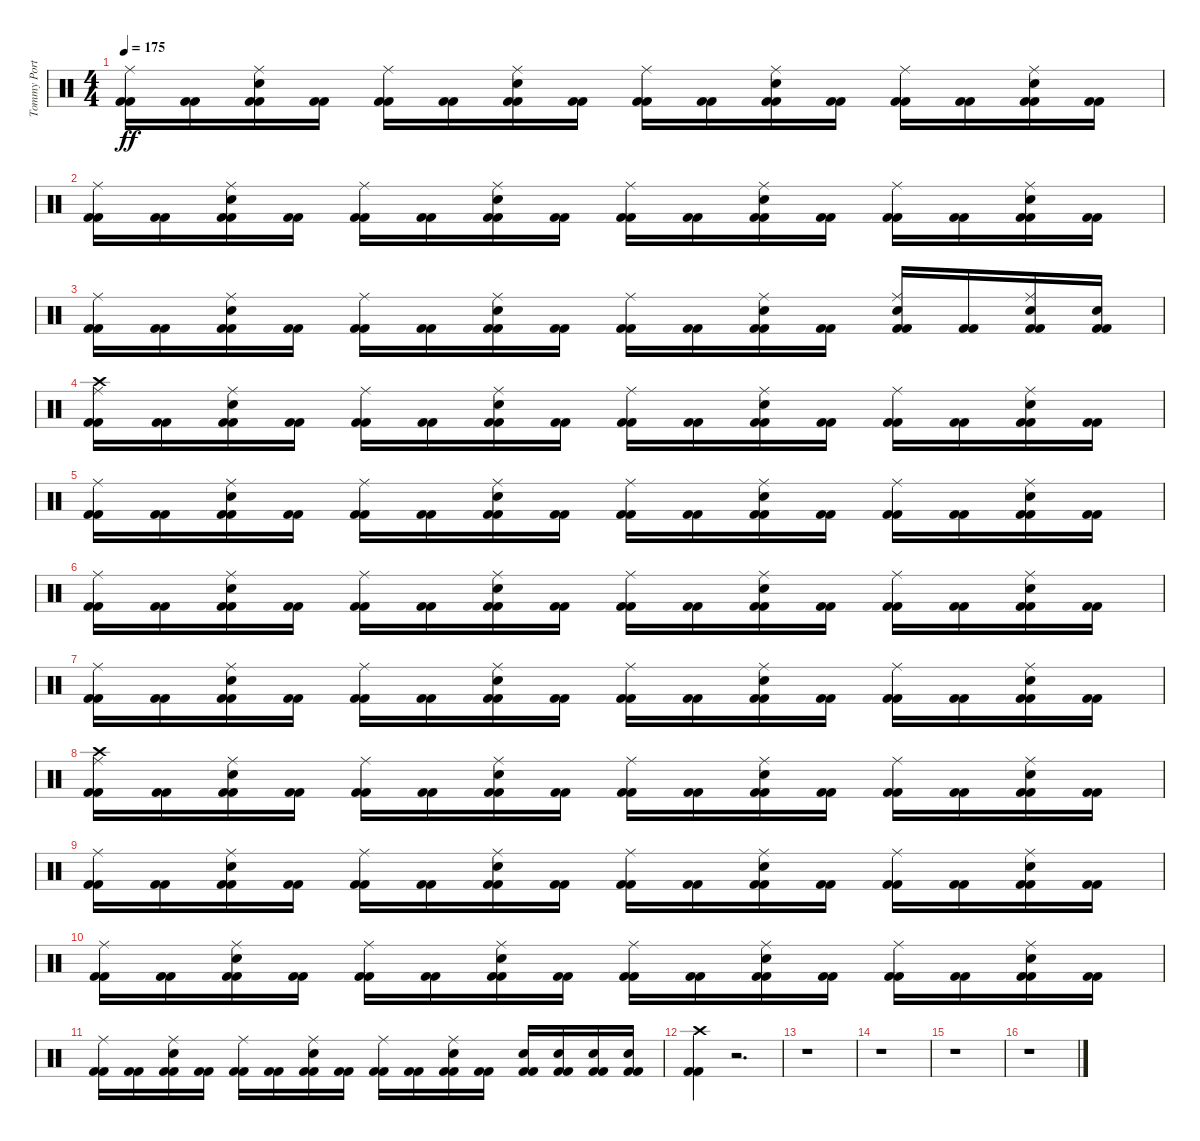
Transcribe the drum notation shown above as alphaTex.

\track ("Tommy Portimo" "Tommy Port") {instrument percussion}
\staff {score}
\articulation defaults
\ts (4 4)
\tempo 175
\clef neutral
\ks c
("Kick (hit) 2" "Kick (hit) 2" "Ride (middle)").16{dy ff} ("Kick (hit) 2" "Kick (hit) 2").16 ("Kick (hit) 2" "Kick (hit) 2" "Ride (middle)" "Electric Snare (hit)").16 ("Kick (hit) 2" "Kick (hit) 2").16 ("Kick (hit) 2" "Kick (hit) 2" "Ride (middle)").16 ("Kick (hit) 2" "Kick (hit) 2").16 ("Kick (hit) 2" "Kick (hit) 2" "Ride (middle)" "Electric Snare (hit)").16 ("Kick (hit) 2" "Kick (hit) 2").16 ("Kick (hit) 2" "Kick (hit) 2" "Ride (middle)").16 ("Kick (hit) 2" "Kick (hit) 2").16 ("Kick (hit) 2" "Kick (hit) 2" "Ride (middle)" "Electric Snare (hit)").16 ("Kick (hit) 2" "Kick (hit) 2").16 ("Kick (hit) 2" "Kick (hit) 2" "Ride (middle)").16 ("Kick (hit) 2" "Kick (hit) 2").16 ("Kick (hit) 2" "Kick (hit) 2" "Ride (middle)" "Electric Snare (hit)").16 ("Kick (hit) 2" "Kick (hit) 2").16 |
("Kick (hit) 2" "Kick (hit) 2" "Ride (middle)").16 ("Kick (hit) 2" "Kick (hit) 2").16 ("Kick (hit) 2" "Kick (hit) 2" "Ride (middle)" "Electric Snare (hit)").16 ("Kick (hit) 2" "Kick (hit) 2").16 ("Kick (hit) 2" "Kick (hit) 2" "Ride (middle)").16 ("Kick (hit) 2" "Kick (hit) 2").16 ("Kick (hit) 2" "Kick (hit) 2" "Ride (middle)" "Electric Snare (hit)").16 ("Kick (hit) 2" "Kick (hit) 2").16 ("Kick (hit) 2" "Kick (hit) 2" "Ride (middle)").16 ("Kick (hit) 2" "Kick (hit) 2").16 ("Kick (hit) 2" "Kick (hit) 2" "Ride (middle)" "Electric Snare (hit)").16 ("Kick (hit) 2" "Kick (hit) 2").16 ("Kick (hit) 2" "Kick (hit) 2" "Ride (middle)").16 ("Kick (hit) 2" "Kick (hit) 2").16 ("Kick (hit) 2" "Kick (hit) 2" "Ride (middle)" "Electric Snare (hit)").16 ("Kick (hit) 2" "Kick (hit) 2").16 |
("Kick (hit) 2" "Kick (hit) 2" "Ride (middle)").16 ("Kick (hit) 2" "Kick (hit) 2").16 ("Kick (hit) 2" "Kick (hit) 2" "Ride (middle)" "Electric Snare (hit)").16 ("Kick (hit) 2" "Kick (hit) 2").16 ("Kick (hit) 2" "Kick (hit) 2" "Ride (middle)").16 ("Kick (hit) 2" "Kick (hit) 2").16 ("Kick (hit) 2" "Kick (hit) 2" "Ride (middle)" "Electric Snare (hit)").16 ("Kick (hit) 2" "Kick (hit) 2").16 ("Kick (hit) 2" "Kick (hit) 2" "Ride (middle)").16 ("Kick (hit) 2" "Kick (hit) 2").16 ("Kick (hit) 2" "Kick (hit) 2" "Ride (middle)" "Electric Snare (hit)").16 ("Kick (hit) 2" "Kick (hit) 2").16 ("Kick (hit) 2" "Kick (hit) 2" "Ride (middle)" "Electric Snare (hit)").16 ("Kick (hit) 2" "Kick (hit) 2").16 ("Kick (hit) 2" "Kick (hit) 2" "Ride (middle)" "Electric Snare (hit)").16 ("Kick (hit) 2" "Kick (hit) 2" "Electric Snare (hit)").16 |
("Kick (hit) 2" "Kick (hit) 2" "Ride (middle)" "Crash high (hit)").16 ("Kick (hit) 2" "Kick (hit) 2").16 ("Kick (hit) 2" "Kick (hit) 2" "Ride (middle)" "Electric Snare (hit)").16 ("Kick (hit) 2" "Kick (hit) 2").16 ("Kick (hit) 2" "Kick (hit) 2" "Ride (middle)").16 ("Kick (hit) 2" "Kick (hit) 2").16 ("Kick (hit) 2" "Kick (hit) 2" "Ride (middle)" "Electric Snare (hit)").16 ("Kick (hit) 2" "Kick (hit) 2").16 ("Kick (hit) 2" "Kick (hit) 2" "Ride (middle)").16 ("Kick (hit) 2" "Kick (hit) 2").16 ("Kick (hit) 2" "Kick (hit) 2" "Ride (middle)" "Electric Snare (hit)").16 ("Kick (hit) 2" "Kick (hit) 2").16 ("Kick (hit) 2" "Kick (hit) 2" "Ride (middle)").16 ("Kick (hit) 2" "Kick (hit) 2").16 ("Kick (hit) 2" "Kick (hit) 2" "Ride (middle)" "Electric Snare (hit)").16 ("Kick (hit) 2" "Kick (hit) 2").16 |
("Kick (hit) 2" "Kick (hit) 2" "Ride (middle)").16 ("Kick (hit) 2" "Kick (hit) 2").16 ("Kick (hit) 2" "Kick (hit) 2" "Ride (middle)" "Electric Snare (hit)").16 ("Kick (hit) 2" "Kick (hit) 2").16 ("Kick (hit) 2" "Kick (hit) 2" "Ride (middle)").16 ("Kick (hit) 2" "Kick (hit) 2").16 ("Kick (hit) 2" "Kick (hit) 2" "Ride (middle)" "Electric Snare (hit)").16 ("Kick (hit) 2" "Kick (hit) 2").16 ("Kick (hit) 2" "Kick (hit) 2" "Ride (middle)").16 ("Kick (hit) 2" "Kick (hit) 2").16 ("Kick (hit) 2" "Kick (hit) 2" "Ride (middle)" "Electric Snare (hit)").16 ("Kick (hit) 2" "Kick (hit) 2").16 ("Kick (hit) 2" "Kick (hit) 2" "Ride (middle)").16 ("Kick (hit) 2" "Kick (hit) 2").16 ("Kick (hit) 2" "Kick (hit) 2" "Ride (middle)" "Electric Snare (hit)").16 ("Kick (hit) 2" "Kick (hit) 2").16 |
("Kick (hit) 2" "Kick (hit) 2" "Ride (middle)").16 ("Kick (hit) 2" "Kick (hit) 2").16 ("Kick (hit) 2" "Kick (hit) 2" "Ride (middle)" "Electric Snare (hit)").16 ("Kick (hit) 2" "Kick (hit) 2").16 ("Kick (hit) 2" "Kick (hit) 2" "Ride (middle)").16 ("Kick (hit) 2" "Kick (hit) 2").16 ("Kick (hit) 2" "Kick (hit) 2" "Ride (middle)" "Electric Snare (hit)").16 ("Kick (hit) 2" "Kick (hit) 2").16 ("Kick (hit) 2" "Kick (hit) 2" "Ride (middle)").16 ("Kick (hit) 2" "Kick (hit) 2").16 ("Kick (hit) 2" "Kick (hit) 2" "Ride (middle)" "Electric Snare (hit)").16 ("Kick (hit) 2" "Kick (hit) 2").16 ("Kick (hit) 2" "Kick (hit) 2" "Ride (middle)").16 ("Kick (hit) 2" "Kick (hit) 2").16 ("Kick (hit) 2" "Kick (hit) 2" "Ride (middle)" "Electric Snare (hit)").16 ("Kick (hit) 2" "Kick (hit) 2").16 |
("Kick (hit) 2" "Kick (hit) 2" "Ride (middle)").16 ("Kick (hit) 2" "Kick (hit) 2").16 ("Kick (hit) 2" "Kick (hit) 2" "Ride (middle)" "Electric Snare (hit)").16 ("Kick (hit) 2" "Kick (hit) 2").16 ("Kick (hit) 2" "Kick (hit) 2" "Ride (middle)").16 ("Kick (hit) 2" "Kick (hit) 2").16 ("Kick (hit) 2" "Kick (hit) 2" "Ride (middle)" "Electric Snare (hit)").16 ("Kick (hit) 2" "Kick (hit) 2").16 ("Kick (hit) 2" "Kick (hit) 2" "Ride (middle)").16 ("Kick (hit) 2" "Kick (hit) 2").16 ("Kick (hit) 2" "Kick (hit) 2" "Ride (middle)" "Electric Snare (hit)").16 ("Kick (hit) 2" "Kick (hit) 2").16 ("Kick (hit) 2" "Kick (hit) 2" "Ride (middle)").16 ("Kick (hit) 2" "Kick (hit) 2").16 ("Kick (hit) 2" "Kick (hit) 2" "Ride (middle)" "Electric Snare (hit)").16 ("Kick (hit) 2" "Kick (hit) 2").16 |
("Kick (hit) 2" "Kick (hit) 2" "Ride (middle)" "Crash high (hit)").16 ("Kick (hit) 2" "Kick (hit) 2").16 ("Kick (hit) 2" "Kick (hit) 2" "Ride (middle)" "Electric Snare (hit)").16 ("Kick (hit) 2" "Kick (hit) 2").16 ("Kick (hit) 2" "Kick (hit) 2" "Ride (middle)").16 ("Kick (hit) 2" "Kick (hit) 2").16 ("Kick (hit) 2" "Kick (hit) 2" "Ride (middle)" "Electric Snare (hit)").16 ("Kick (hit) 2" "Kick (hit) 2").16 ("Kick (hit) 2" "Kick (hit) 2" "Ride (middle)").16 ("Kick (hit) 2" "Kick (hit) 2").16 ("Kick (hit) 2" "Kick (hit) 2" "Ride (middle)" "Electric Snare (hit)").16 ("Kick (hit) 2" "Kick (hit) 2").16 ("Kick (hit) 2" "Kick (hit) 2" "Ride (middle)").16 ("Kick (hit) 2" "Kick (hit) 2").16 ("Kick (hit) 2" "Kick (hit) 2" "Ride (middle)" "Electric Snare (hit)").16 ("Kick (hit) 2" "Kick (hit) 2").16 |
("Kick (hit) 2" "Kick (hit) 2" "Ride (middle)").16 ("Kick (hit) 2" "Kick (hit) 2").16 ("Kick (hit) 2" "Kick (hit) 2" "Ride (middle)" "Electric Snare (hit)").16 ("Kick (hit) 2" "Kick (hit) 2").16 ("Kick (hit) 2" "Kick (hit) 2" "Ride (middle)").16 ("Kick (hit) 2" "Kick (hit) 2").16 ("Kick (hit) 2" "Kick (hit) 2" "Ride (middle)" "Electric Snare (hit)").16 ("Kick (hit) 2" "Kick (hit) 2").16 ("Kick (hit) 2" "Kick (hit) 2" "Ride (middle)").16 ("Kick (hit) 2" "Kick (hit) 2").16 ("Kick (hit) 2" "Kick (hit) 2" "Ride (middle)" "Electric Snare (hit)").16 ("Kick (hit) 2" "Kick (hit) 2").16 ("Kick (hit) 2" "Kick (hit) 2" "Ride (middle)").16 ("Kick (hit) 2" "Kick (hit) 2").16 ("Kick (hit) 2" "Kick (hit) 2" "Ride (middle)" "Electric Snare (hit)").16 ("Kick (hit) 2" "Kick (hit) 2").16 |
("Kick (hit) 2" "Kick (hit) 2" "Ride (middle)").16 ("Kick (hit) 2" "Kick (hit) 2").16 ("Kick (hit) 2" "Kick (hit) 2" "Ride (middle)" "Electric Snare (hit)").16 ("Kick (hit) 2" "Kick (hit) 2").16 ("Kick (hit) 2" "Kick (hit) 2" "Ride (middle)").16 ("Kick (hit) 2" "Kick (hit) 2").16 ("Kick (hit) 2" "Kick (hit) 2" "Ride (middle)" "Electric Snare (hit)").16 ("Kick (hit) 2" "Kick (hit) 2").16 ("Kick (hit) 2" "Kick (hit) 2" "Ride (middle)").16 ("Kick (hit) 2" "Kick (hit) 2").16 ("Kick (hit) 2" "Kick (hit) 2" "Ride (middle)" "Electric Snare (hit)").16 ("Kick (hit) 2" "Kick (hit) 2").16 ("Kick (hit) 2" "Kick (hit) 2" "Ride (middle)").16 ("Kick (hit) 2" "Kick (hit) 2").16 ("Kick (hit) 2" "Kick (hit) 2" "Ride (middle)" "Electric Snare (hit)").16 ("Kick (hit) 2" "Kick (hit) 2").16 |
("Kick (hit) 2" "Kick (hit) 2" "Ride (middle)").16 ("Kick (hit) 2" "Kick (hit) 2").16 ("Kick (hit) 2" "Kick (hit) 2" "Ride (middle)" "Electric Snare (hit)").16 ("Kick (hit) 2" "Kick (hit) 2").16 ("Kick (hit) 2" "Kick (hit) 2" "Ride (middle)").16 ("Kick (hit) 2" "Kick (hit) 2").16 ("Kick (hit) 2" "Kick (hit) 2" "Ride (middle)" "Electric Snare (hit)").16 ("Kick (hit) 2" "Kick (hit) 2").16 ("Kick (hit) 2" "Kick (hit) 2" "Ride (middle)").16 ("Kick (hit) 2" "Kick (hit) 2").16 ("Kick (hit) 2" "Kick (hit) 2" "Ride (middle)" "Electric Snare (hit)").16 ("Kick (hit) 2" "Kick (hit) 2").16 ("Kick (hit) 2" "Kick (hit) 2" "Electric Snare (hit)").16 ("Kick (hit) 2" "Kick (hit) 2" "Electric Snare (hit)").16 ("Kick (hit) 2" "Kick (hit) 2" "Electric Snare (hit)").16 ("Kick (hit) 2" "Kick (hit) 2" "Electric Snare (hit)").16 |
("Kick (hit) 2" "Kick (hit) 2" "Crash high (hit)").4 r.2{d} |
r.1 |
r.1 |
r.1 |
r.1
